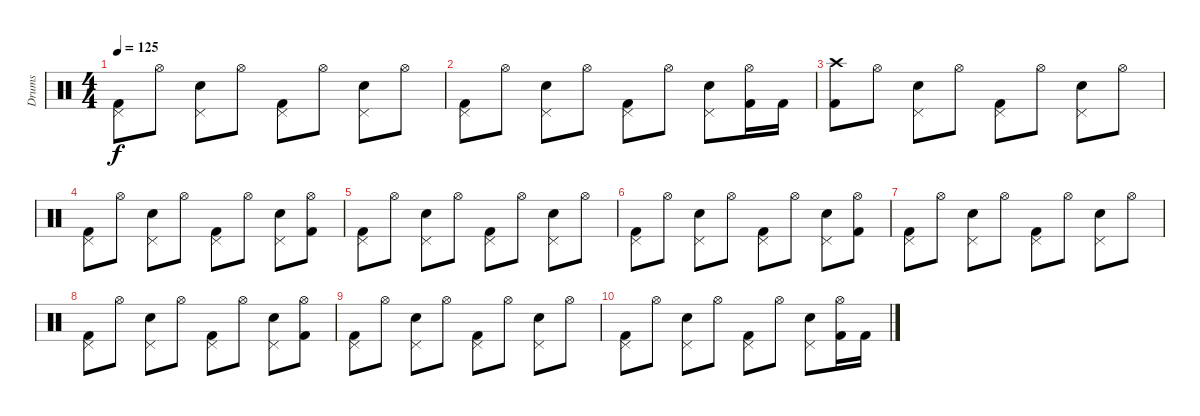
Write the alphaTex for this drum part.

\track ("Drums" "Drums") {instrument percussion}
\staff {score}
\articulation defaults
\ts (4 4)
\tempo 125
\clef neutral
\ks c
("Pedal Hi-Hat (hit)" "Kick (hit) 2").8{dy f} "Hi-Hat (open)".8 ("Pedal Hi-Hat (hit)" "Electric Snare (hit)").8 "Hi-Hat (open)".8 ("Pedal Hi-Hat (hit)" "Kick (hit) 2").8 "Hi-Hat (open)".8 ("Pedal Hi-Hat (hit)" "Electric Snare (hit)").8 "Hi-Hat (open)".8 |
("Pedal Hi-Hat (hit)" "Kick (hit) 2").8 "Hi-Hat (open)".8 ("Pedal Hi-Hat (hit)" "Electric Snare (hit)").8 "Hi-Hat (open)".8 ("Pedal Hi-Hat (hit)" "Kick (hit) 2").8 "Hi-Hat (open)".8 ("Pedal Hi-Hat (hit)" "Electric Snare (hit)").8 ("Hi-Hat (open)" "Kick (hit) 2").16 "Kick (hit) 2".16 |
("Crash high (hit)" "Kick (hit) 2").8 "Hi-Hat (open)".8 ("Pedal Hi-Hat (hit)" "Electric Snare (hit)").8 "Hi-Hat (open)".8 ("Pedal Hi-Hat (hit)" "Kick (hit) 2").8 "Hi-Hat (open)".8 ("Pedal Hi-Hat (hit)" "Electric Snare (hit)").8 "Hi-Hat (open)".8 |
("Pedal Hi-Hat (hit)" "Kick (hit) 2").8 "Hi-Hat (open)".8 ("Pedal Hi-Hat (hit)" "Electric Snare (hit)").8 "Hi-Hat (open)".8 ("Pedal Hi-Hat (hit)" "Kick (hit) 2").8 "Hi-Hat (open)".8 ("Pedal Hi-Hat (hit)" "Electric Snare (hit)").8 ("Hi-Hat (open)" "Kick (hit) 2").8 |
("Pedal Hi-Hat (hit)" "Kick (hit) 2").8 "Hi-Hat (open)".8 ("Pedal Hi-Hat (hit)" "Electric Snare (hit)").8 "Hi-Hat (open)".8 ("Pedal Hi-Hat (hit)" "Kick (hit) 2").8 "Hi-Hat (open)".8 ("Pedal Hi-Hat (hit)" "Electric Snare (hit)").8 "Hi-Hat (open)".8 |
("Pedal Hi-Hat (hit)" "Kick (hit) 2").8 "Hi-Hat (open)".8 ("Pedal Hi-Hat (hit)" "Electric Snare (hit)").8 "Hi-Hat (open)".8 ("Pedal Hi-Hat (hit)" "Kick (hit) 2").8 "Hi-Hat (open)".8 ("Pedal Hi-Hat (hit)" "Electric Snare (hit)").8 ("Hi-Hat (open)" "Kick (hit) 2").8 |
("Pedal Hi-Hat (hit)" "Kick (hit) 2").8 "Hi-Hat (open)".8 ("Pedal Hi-Hat (hit)" "Electric Snare (hit)").8 "Hi-Hat (open)".8 ("Pedal Hi-Hat (hit)" "Kick (hit) 2").8 "Hi-Hat (open)".8 ("Pedal Hi-Hat (hit)" "Electric Snare (hit)").8 "Hi-Hat (open)".8 |
("Pedal Hi-Hat (hit)" "Kick (hit) 2").8 "Hi-Hat (open)".8 ("Pedal Hi-Hat (hit)" "Electric Snare (hit)").8 "Hi-Hat (open)".8 ("Pedal Hi-Hat (hit)" "Kick (hit) 2").8 "Hi-Hat (open)".8 ("Pedal Hi-Hat (hit)" "Electric Snare (hit)").8 ("Hi-Hat (open)" "Kick (hit) 2").8 |
("Pedal Hi-Hat (hit)" "Kick (hit) 2").8 "Hi-Hat (open)".8 ("Pedal Hi-Hat (hit)" "Electric Snare (hit)").8 "Hi-Hat (open)".8 ("Pedal Hi-Hat (hit)" "Kick (hit) 2").8 "Hi-Hat (open)".8 ("Pedal Hi-Hat (hit)" "Electric Snare (hit)").8 "Hi-Hat (open)".8 |
("Pedal Hi-Hat (hit)" "Kick (hit) 2").8 "Hi-Hat (open)".8 ("Pedal Hi-Hat (hit)" "Electric Snare (hit)").8 "Hi-Hat (open)".8 ("Pedal Hi-Hat (hit)" "Kick (hit) 2").8 "Hi-Hat (open)".8 ("Pedal Hi-Hat (hit)" "Electric Snare (hit)").8 ("Hi-Hat (open)" "Kick (hit) 2").16 "Kick (hit) 2".16
